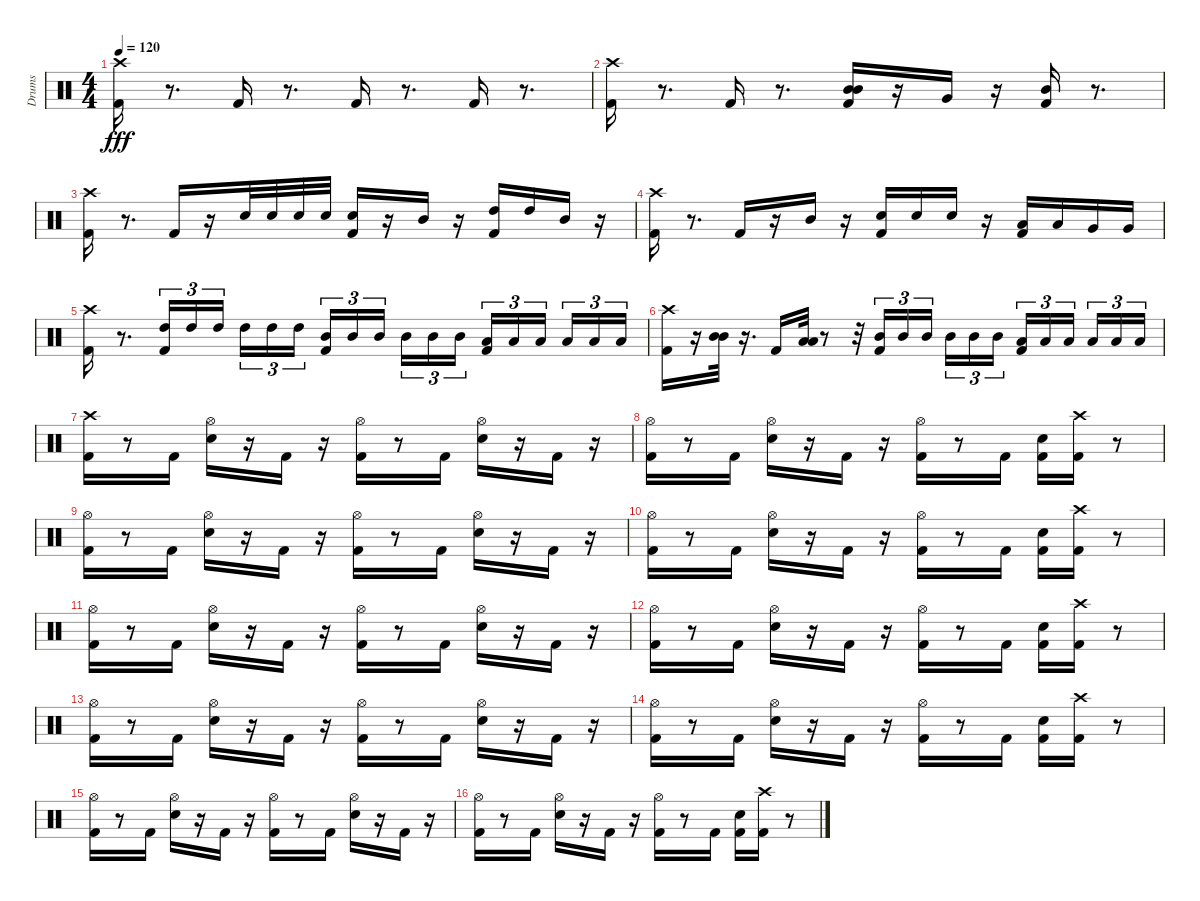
\track ("Drums" "Drums") {instrument percussion}
\staff {score}
\articulation defaults
\ts (4 4)
\tempo 120
\clef neutral
\ks c
("Kick (hit) 2" "Crash high (hit)").16{dy fff} r.8{d} "Kick (hit) 2".16 r.8{d} "Kick (hit) 2".16 r.8{d} "Kick (hit) 2".16 r.8{d} |
("Kick (hit) 2" "Crash high (hit)").16 r.8{d} "Kick (hit) 2".16 r.8{d} ("Mid Tom (hit)" "Kick (hit) 2" "Mid Tom (hit)").16 r.16 "Very Low Tom (hit)".16 r.16 ("Mid Tom (hit)" "Kick (hit) 2").16 r.8{d} |
("Kick (hit) 2" "Crash high (hit)").16 r.8{d} "Kick (hit) 2".16 r.16 "Electric Snare (hit)".32 "Electric Snare (hit)".32 "Electric Snare (hit)".32 "Electric Snare (hit)".32 ("Electric Snare (hit)" "Kick (hit) 2").16 r.16 "Mid Tom (hit)".16 r.16 ("High Tom (hit)" "Kick (hit) 2").16 "High Tom (hit)".16 "Mid Tom (hit)".16 r.16 |
("Kick (hit) 2" "Crash high (hit)").16 r.8{d} "Kick (hit) 2".16 r.16 "Mid Tom (hit)".16 r.16 ("Electric Snare (hit)" "Kick (hit) 2").16 "Electric Snare (hit)".16 "Electric Snare (hit)".16 r.16 ("Low Tom (hit)" "Kick (hit) 2").16 "Low Tom (hit)".16 "Very Low Tom (hit)".16 "Very Low Tom (hit)".16 |
("Kick (hit) 2" "Crash high (hit)").16 r.8{d} ("High Tom (hit)" "Kick (hit) 2").16{tu (3 2)} "High Tom (hit)".16{tu (3 2)} "High Tom (hit)".16{tu (3 2) beam splitsecondary} "High Tom (hit)".16{tu (3 2)} "High Tom (hit)".16{tu (3 2)} "High Tom (hit)".16{tu (3 2)} ("Mid Tom (hit)" "Kick (hit) 2").16{tu (3 2)} "Mid Tom (hit)".16{tu (3 2)} "Mid Tom (hit)".16{tu (3 2) beam splitsecondary} "Mid Tom (hit)".16{tu (3 2)} "Mid Tom (hit)".16{tu (3 2)} "Mid Tom (hit)".16{tu (3 2)} ("Low Tom (hit)" "Kick (hit) 2").16{tu (3 2)} "Low Tom (hit)".16{tu (3 2)} "Low Tom (hit)".16{tu (3 2) beam splitsecondary} "Low Tom (hit)".16{tu (3 2)} "Low Tom (hit)".16{tu (3 2)} "Low Tom (hit)".16{tu (3 2)} |
("Kick (hit) 2" "Crash high (hit)").16 r.16 ("Mid Tom (hit)" "Mid Tom (hit)").32 r.16{d} "Kick (hit) 2".16 ("Low Tom (hit)" "Low Tom (hit)").32 r.8 r.32 ("Mid Tom (hit)" "Kick (hit) 2").16{tu (3 2)} "Mid Tom (hit)".16{tu (3 2)} "Mid Tom (hit)".16{tu (3 2) beam splitsecondary} "Mid Tom (hit)".16{tu (3 2)} "Mid Tom (hit)".16{tu (3 2)} "Mid Tom (hit)".16{tu (3 2)} ("Low Tom (hit)" "Kick (hit) 2").16{tu (3 2)} "Low Tom (hit)".16{tu (3 2)} "Low Tom (hit)".16{tu (3 2) beam splitsecondary} "Low Tom (hit)".16{tu (3 2)} "Low Tom (hit)".16{tu (3 2)} "Low Tom (hit)".16{tu (3 2)} |
("Crash high (hit)" "Kick (hit) 2").16 r.8 "Kick (hit) 2".16 ("Electric Snare (hit)" "Hi-Hat (open)").16 r.16 "Kick (hit) 2".16 r.16 ("Kick (hit) 2" "Hi-Hat (open)").16 r.8 "Kick (hit) 2".16 ("Electric Snare (hit)" "Hi-Hat (open)").16 r.16 "Kick (hit) 2".16 r.16 |
("Hi-Hat (open)" "Kick (hit) 2").16 r.8 "Kick (hit) 2".16 ("Hi-Hat (open)" "Electric Snare (hit)").16 r.16 "Kick (hit) 2".16 r.16 ("Hi-Hat (open)" "Kick (hit) 2").16 r.8 "Kick (hit) 2".16 ("Electric Snare (hit)" "Kick (hit) 2").16 ("Kick (hit) 2" "Crash high (hit)").16 r.8 |
("Hi-Hat (open)" "Kick (hit) 2").16 r.8 "Kick (hit) 2".16 ("Hi-Hat (open)" "Electric Snare (hit)").16 r.16 "Kick (hit) 2".16 r.16 ("Hi-Hat (open)" "Kick (hit) 2").16 r.8 "Kick (hit) 2".16 ("Hi-Hat (open)" "Electric Snare (hit)").16 r.16 "Kick (hit) 2".16 r.16 |
("Kick (hit) 2" "Hi-Hat (open)").16 r.8 "Kick (hit) 2".16 ("Electric Snare (hit)" "Hi-Hat (open)").16 r.16 "Kick (hit) 2".16 r.16 ("Kick (hit) 2" "Hi-Hat (open)").16 r.8 "Kick (hit) 2".16 ("Electric Snare (hit)" "Kick (hit) 2").16 ("Kick (hit) 2" "Crash high (hit)").16 r.8 |
("Kick (hit) 2" "Hi-Hat (open)").16 r.8 "Kick (hit) 2".16 ("Electric Snare (hit)" "Hi-Hat (open)").16 r.16 "Kick (hit) 2".16 r.16 ("Kick (hit) 2" "Hi-Hat (open)").16 r.8 "Kick (hit) 2".16 ("Electric Snare (hit)" "Hi-Hat (open)").16 r.16 "Kick (hit) 2".16 r.16 |
("Hi-Hat (open)" "Kick (hit) 2").16 r.8 "Kick (hit) 2".16 ("Hi-Hat (open)" "Electric Snare (hit)").16 r.16 "Kick (hit) 2".16 r.16 ("Hi-Hat (open)" "Kick (hit) 2").16 r.8 "Kick (hit) 2".16 ("Kick (hit) 2" "Electric Snare (hit)").16 ("Crash high (hit)" "Kick (hit) 2").16 r.8 |
("Kick (hit) 2" "Hi-Hat (open)").16 r.8 "Kick (hit) 2".16 ("Electric Snare (hit)" "Hi-Hat (open)").16 r.16 "Kick (hit) 2".16 r.16 ("Kick (hit) 2" "Hi-Hat (open)").16 r.8 "Kick (hit) 2".16 ("Electric Snare (hit)" "Hi-Hat (open)").16 r.16 "Kick (hit) 2".16 r.16 |
("Hi-Hat (open)" "Kick (hit) 2").16 r.8 "Kick (hit) 2".16 ("Hi-Hat (open)" "Electric Snare (hit)").16 r.16 "Kick (hit) 2".16 r.16 ("Hi-Hat (open)" "Kick (hit) 2").16 r.8 "Kick (hit) 2".16 ("Kick (hit) 2" "Electric Snare (hit)").16 ("Crash high (hit)" "Kick (hit) 2").16 r.8 |
("Hi-Hat (open)" "Kick (hit) 2").16 r.8 "Kick (hit) 2".16 ("Hi-Hat (open)" "Electric Snare (hit)").16 r.16 "Kick (hit) 2".16 r.16 ("Hi-Hat (open)" "Kick (hit) 2").16 r.8 "Kick (hit) 2".16 ("Hi-Hat (open)" "Electric Snare (hit)").16 r.16 "Kick (hit) 2".16 r.16 |
("Kick (hit) 2" "Hi-Hat (open)").16 r.8 "Kick (hit) 2".16 ("Electric Snare (hit)" "Hi-Hat (open)").16 r.16 "Kick (hit) 2".16 r.16 ("Kick (hit) 2" "Hi-Hat (open)").16 r.8 "Kick (hit) 2".16 ("Electric Snare (hit)" "Kick (hit) 2").16 ("Kick (hit) 2" "Crash high (hit)").16 r.8
